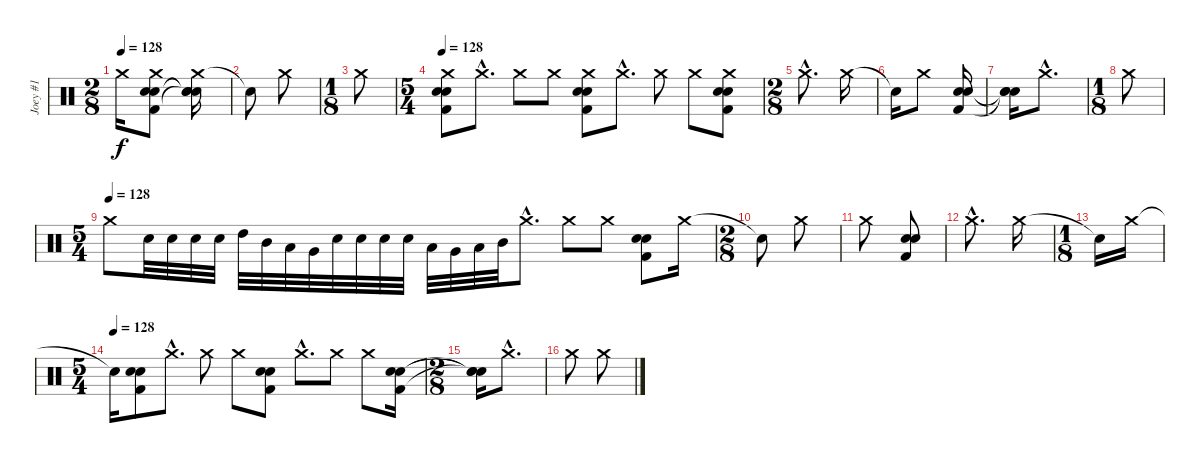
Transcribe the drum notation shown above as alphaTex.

\track ("Joey #1" "Joey #1") {instrument percussion}
\staff {score}
\articulation defaults
\ts (2 8)
\tempo 128
\clef neutral
\ks c "Crash medium (hit)"{t}.16{dy f}
("Crash medium (hit)" "Electric Snare (hit)" "Electric Snare (hit)" "Kick (hit) 2").8 ("Crash medium (hit)" "Snare (hit)"{t} "Snare (hit)"{t} "Snare (hit)"{t}).16 |
"Snare (hit)"{t}.8 "Crash medium (hit)".8 |
\ts (1 8)
"Crash medium (hit)".8 |
\ts (5 4)
\tempo 128
("Crash medium (hit)" "Electric Snare (hit)" "Electric Snare (hit)" "Kick (hit) 2").8 "Crash medium (hit)"{hac}.8{d} "Crash medium (hit)".8 "Crash medium (hit)".8 ("Crash medium (hit)" "Electric Snare (hit)" "Electric Snare (hit)" "Kick (hit) 2").8 "Crash medium (hit)"{hac}.8{d} "Crash medium (hit)".8 "Crash medium (hit)".8 ("Crash medium (hit)" "Electric Snare (hit)" "Electric Snare (hit)" "Kick (hit) 2").8 |
\ts (2 8)
"Crash medium (hit)"{hac}.8{d} "Crash medium (hit)".16 |
"Snare (hit)"{t}.16 "Crash medium (hit)".8 ("Electric Snare (hit)" "Electric Snare (hit)" "Kick (hit) 2").16 |
("Snare (hit)"{t} "Snare (hit)"{t} "Snare (hit)"{t}).16 "Crash medium (hit)"{hac}.8{d} |
\ts (1 8)
"Crash medium (hit)".8 |
\ts (5 4)
\tempo (128)
"Crash medium (hit)".8 "Snare (hit) 2".32 "Snare (hit) 2".32 "Snare (hit) 2".32 "Snare (hit) 2".32 "High Tom (hit)".32 "Mid Tom (hit)".32 "Low Tom (hit)".32 "Very Low Tom (hit)".32 "Snare (hit) 2".32 "Snare (hit) 2".32 "Snare (hit) 2".32 "Snare (hit) 2".32 "Low Floor Tom (hit)".32 "Very Low Tom (hit)".32 "Low Tom (hit)".32 "Mid Tom (hit)".32 "Crash medium (hit)"{hac}.8{d} "Crash medium (hit)".8 "Crash medium (hit)".8 ("Electric Snare (hit)" "Electric Snare (hit)" "Kick (hit) 2").8 "Crash medium (hit)".16 |
\ts (2 8)
"Snare (hit)"{t}.8 "Crash medium (hit)".8 |
"Crash medium (hit)".8 ("Electric Snare (hit)" "Electric Snare (hit)" "Kick (hit) 2").8 |
"Crash medium (hit)"{hac}.8{d} "Crash medium (hit)".16 |
\ts (1 8)
"Snare (hit)"{t}.16 "Crash medium (hit)".16 |
\ts (5 4)
\tempo (128)
"Snare (hit)"{t}.16 ("Electric Snare (hit)" "Electric Snare (hit)" "Kick (hit) 2").8 "Crash medium (hit)"{hac}.8{d} "Crash medium (hit)".8 "Crash medium (hit)".8 ("Electric Snare (hit)" "Electric Snare (hit)" "Kick (hit) 2").8 "Crash medium (hit)"{hac}.8{d} "Crash medium (hit)".8 "Crash medium (hit)".8 ("Electric Snare (hit)" "Electric Snare (hit)" "Kick (hit) 2").16 |
\ts (2 8)
("Snare (hit)"{t} "Snare (hit)"{t} "Snare (hit)"{t}).16 "Crash medium (hit)"{hac}.8{d} |
"Crash medium (hit)".8 "Crash medium (hit)".8
